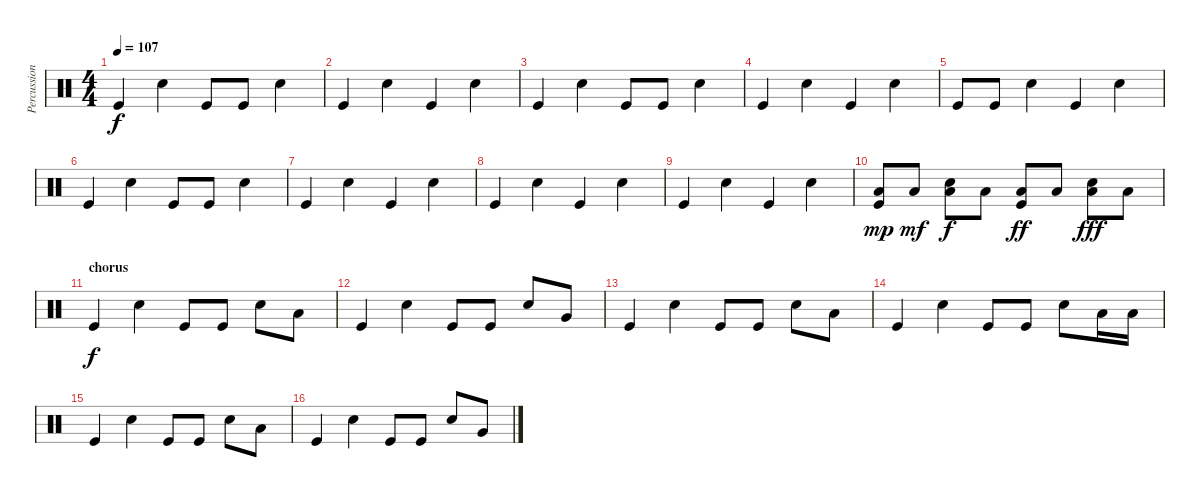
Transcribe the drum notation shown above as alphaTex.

\track ("Percussion" "Percussion") {instrument percussion}
\staff {score}
\articulation defaults
\ts (4 4)
\tempo 107
\clef neutral
\ks c "Kick (hit)".4{dy f} "Electric Snare (hit)".4 "Kick (hit)".8 "Kick (hit)".8 "Electric Snare (hit)".4
|
"Kick (hit)".4 "Electric Snare (hit)".4 "Kick (hit)".4 "Electric Snare (hit)".4 |
"Kick (hit)".4 "Electric Snare (hit)".4 "Kick (hit)".8 "Kick (hit)".8 "Electric Snare (hit)".4 |
"Kick (hit)".4 "Electric Snare (hit)".4 "Kick (hit)".4 "Electric Snare (hit)".4 |
"Kick (hit)".8 "Kick (hit)".8 "Electric Snare (hit)".4 "Kick (hit)".4 "Electric Snare (hit)".4 |
"Kick (hit)".4 "Snare (hit) 2".4 "Kick (hit)".8 "Kick (hit)".8 "Electric Snare (hit)".4 |
"Kick (hit)".4 "Electric Snare (hit)".4 "Kick (hit)".4 "Electric Snare (hit)".4 |
"Kick (hit)".4 "Electric Snare (hit)".4 "Kick (hit)".4 "Electric Snare (hit)".4 |
"Kick (hit)".4 "Electric Snare (hit)".4 "Kick (hit)".4 "Electric Snare (hit)".4 |
("Kick (hit)" "Low Tom (hit)").8{dy mp} "Low Tom (hit)".8{dy mf} ("Electric Snare (hit)" "Low Tom (hit)").8{dy f} "Low Tom (hit)".8 ("Kick (hit)" "Low Tom (hit)").8{dy ff} "Low Tom (hit)".8 ("Electric Snare (hit)" "Low Tom (hit)").8{dy fff} "Low Tom (hit)".8 |
\section ("" "chorus")
"Kick (hit)".4{dy f} "Electric Snare (hit)".4 "Kick (hit)".8 "Kick (hit)".8 "Electric Snare (hit)".8 "Low Tom (hit)".8 |
"Kick (hit)".4 "Electric Snare (hit)".4 "Kick (hit)".8 "Kick (hit)".8 "Electric Snare (hit)".8 "Very Low Tom (hit)".8 |
"Kick (hit)".4 "Electric Snare (hit)".4 "Kick (hit)".8 "Kick (hit)".8 "Electric Snare (hit)".8 "Low Tom (hit)".8 |
"Kick (hit)".4 "Electric Snare (hit)".4 "Kick (hit)".8 "Kick (hit)".8 "Electric Snare (hit)".8 "Low Tom (hit)".16 "Low Tom (hit)".16 |
"Kick (hit)".4 "Electric Snare (hit)".4 "Kick (hit)".8 "Kick (hit)".8 "Electric Snare (hit)".8 "Low Tom (hit)".8 |
"Kick (hit)".4 "Electric Snare (hit)".4 "Kick (hit)".8 "Kick (hit)".8 "Electric Snare (hit)".8 "Very Low Tom (hit)".8
